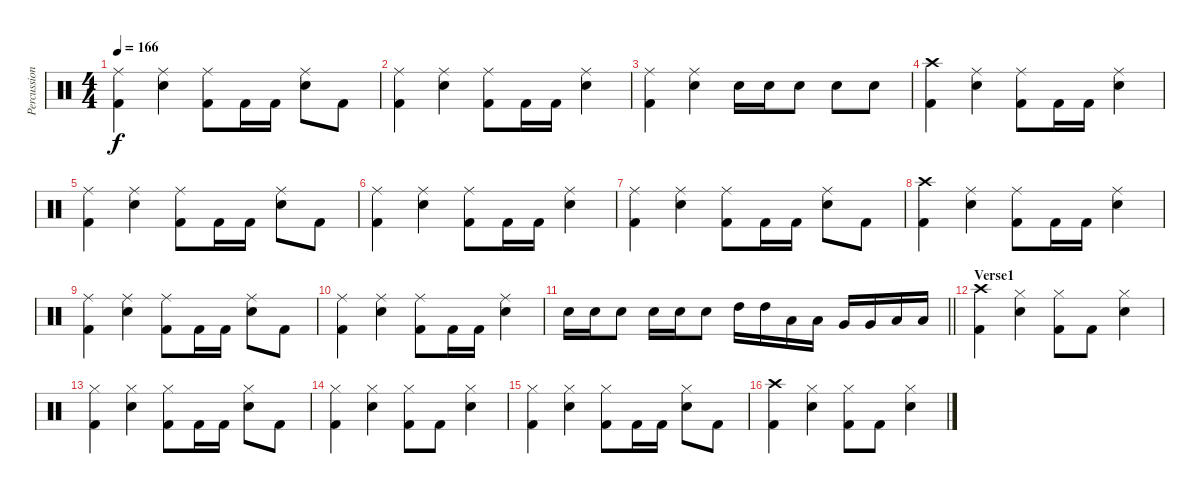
\track ("Percussion" "Percussion") {solo instrument percussion}
\staff {score}
\articulation defaults
\ts (4 4)
\tempo 166
\clef neutral
\ks c
("Ride (middle)" "Kick (hit) 2").4{dy f} ("Snare (hit) 2" "Ride (middle)").4 ("Ride (middle)" "Kick (hit) 2").8 "Kick (hit) 2".16 "Kick (hit) 2".16 ("Ride (middle)" "Snare (hit) 2").8 "Kick (hit) 2".8 |
("Ride (middle)" "Kick (hit) 2").4 ("Snare (hit) 2" "Ride (middle)").4 ("Ride (middle)" "Kick (hit) 2").8 "Kick (hit) 2".16 "Kick (hit) 2".16 ("Ride (middle)" "Snare (hit) 2").4 |
("Ride (middle)" "Kick (hit) 2").4 ("Snare (hit) 2" "Ride (middle)").4 "Snare (hit) 2".16 "Snare (hit) 2".16 "Snare (hit) 2".8 "Snare (hit) 2".8 "Snare (hit) 2".8 |
("Crash high (hit)" "Kick (hit) 2").4 ("Snare (hit) 2" "Ride (middle)").4 ("Ride (middle)" "Kick (hit) 2").8 "Kick (hit) 2".16 "Kick (hit) 2".16 ("Ride (middle)" "Snare (hit) 2").4 |
("Ride (middle)" "Kick (hit) 2").4 ("Snare (hit) 2" "Ride (middle)").4 ("Ride (middle)" "Kick (hit) 2").8 "Kick (hit) 2".16 "Kick (hit) 2".16 ("Ride (middle)" "Snare (hit) 2").8 "Kick (hit) 2".8 |
("Ride (middle)" "Kick (hit) 2").4 ("Snare (hit) 2" "Ride (middle)").4 ("Ride (middle)" "Kick (hit) 2").8 "Kick (hit) 2".16 "Kick (hit) 2".16 ("Ride (middle)" "Snare (hit) 2").4 |
("Ride (middle)" "Kick (hit) 2").4 ("Snare (hit) 2" "Ride (middle)").4 ("Ride (middle)" "Kick (hit) 2").8 "Kick (hit) 2".16 "Kick (hit) 2".16 ("Ride (middle)" "Snare (hit) 2").8 "Kick (hit) 2".8 |
("Crash high (hit)" "Kick (hit) 2").4 ("Snare (hit) 2" "Ride (middle)").4 ("Ride (middle)" "Kick (hit) 2").8 "Kick (hit) 2".16 "Kick (hit) 2".16 ("Ride (middle)" "Snare (hit) 2").4 |
("Ride (middle)" "Kick (hit) 2").4 ("Snare (hit) 2" "Ride (middle)").4 ("Ride (middle)" "Kick (hit) 2").8 "Kick (hit) 2".16 "Kick (hit) 2".16 ("Ride (middle)" "Snare (hit) 2").8 "Kick (hit) 2".8 |
("Ride (middle)" "Kick (hit) 2").4 ("Snare (hit) 2" "Ride (middle)").4 ("Ride (middle)" "Kick (hit) 2").8 "Kick (hit) 2".16 "Kick (hit) 2".16 ("Ride (middle)" "Snare (hit) 2").4 |
\barLineRight lightlight "Snare (hit) 2".16 "Snare (hit) 2".16 "Snare (hit) 2".8 "Snare (hit) 2".16 "Snare (hit) 2".16 "Snare (hit) 2".8 "High Tom (hit)".16 "High Tom (hit)".16 "Low Tom (hit)".16 "Low Tom (hit)".16 "Very Low Tom (hit)".16 "Very Low Tom (hit)".16 "Low Floor Tom (hit)".16 "Low Floor Tom (hit)".16
|
\section ("" "Verse1")
\ks aminor
("Crash high (hit)" "Kick (hit) 2").4 ("Hi-Hat (closed)" "Snare (hit) 2").4 ("Hi-Hat (closed)" "Kick (hit) 2").8 "Kick (hit) 2".8 ("Hi-Hat (closed)" "Snare (hit) 2").4 |
("Hi-Hat (closed)" "Kick (hit) 2").4 ("Hi-Hat (closed)" "Snare (hit) 2").4 ("Hi-Hat (closed)" "Kick (hit) 2").8 "Kick (hit) 2".16 "Kick (hit) 2".16 ("Hi-Hat (closed)" "Snare (hit) 2").8 "Kick (hit) 2".8 |
("Hi-Hat (closed)" "Kick (hit) 2").4 ("Hi-Hat (closed)" "Snare (hit) 2").4 ("Hi-Hat (closed)" "Kick (hit) 2").8 "Kick (hit) 2".8 ("Hi-Hat (closed)" "Snare (hit) 2").4 |
("Hi-Hat (closed)" "Kick (hit) 2").4 ("Hi-Hat (closed)" "Snare (hit) 2").4 ("Hi-Hat (closed)" "Kick (hit) 2").8 "Kick (hit) 2".16 "Kick (hit) 2".16 ("Hi-Hat (closed)" "Snare (hit) 2").8 "Kick (hit) 2".8 |
("Crash high (hit)" "Kick (hit) 2").4 ("Hi-Hat (closed)" "Snare (hit) 2").4 ("Hi-Hat (closed)" "Kick (hit) 2").8 "Kick (hit) 2".8 ("Hi-Hat (closed)" "Snare (hit) 2").4
